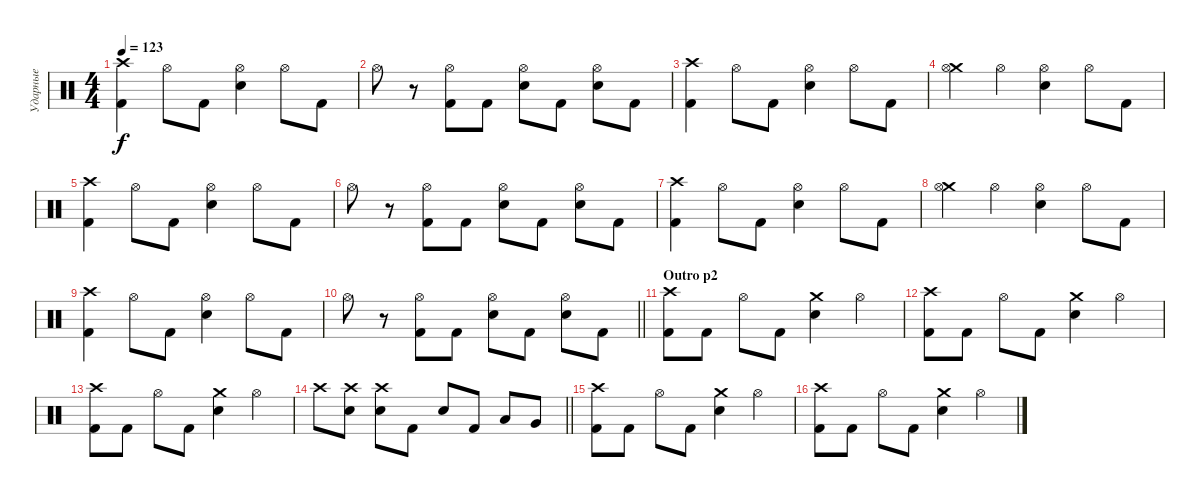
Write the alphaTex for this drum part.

\track ("Ударные" "Ударные") {instrument percussion}
\staff {score}
\articulation defaults
\ts (4 4)
\tempo 123
\clef neutral
\ks c
("Kick (hit) 2" "Crash high (hit)").4{dy f} "Hi-Hat (open)".8 "Kick (hit) 2".8 ("Electric Snare (hit)" "Hi-Hat (open)").4 "Hi-Hat (open)".8 "Kick (hit) 2".8 |
"Hi-Hat (open)".8 r.8 ("Kick (hit) 2" "Hi-Hat (open)").8 "Kick (hit) 2".8 ("Electric Snare (hit)" "Hi-Hat (open)").8 "Kick (hit) 2".8 ("Electric Snare (hit)" "Hi-Hat (open)").8 "Kick (hit) 2".8 |
("Kick (hit) 2" "Crash high (hit)").4 "Hi-Hat (open)".8 "Kick (hit) 2".8 ("Electric Snare (hit)" "Hi-Hat (open)").4 "Hi-Hat (open)".8 "Kick (hit) 2".8 |
("Crash medium (hit)" "Hi-Hat (open)").4 "Hi-Hat (open)".4 ("Electric Snare (hit)" "Hi-Hat (open)").4 "Hi-Hat (open)".8 "Kick (hit) 2".8 |
("Kick (hit) 2" "Crash high (hit)").4 "Hi-Hat (open)".8 "Kick (hit) 2".8 ("Electric Snare (hit)" "Hi-Hat (open)").4 "Hi-Hat (open)".8 "Kick (hit) 2".8 |
"Hi-Hat (open)".8 r.8 ("Kick (hit) 2" "Hi-Hat (open)").8 "Kick (hit) 2".8 ("Electric Snare (hit)" "Hi-Hat (open)").8 "Kick (hit) 2".8 ("Electric Snare (hit)" "Hi-Hat (open)").8 "Kick (hit) 2".8 |
("Kick (hit) 2" "Crash high (hit)").4 "Hi-Hat (open)".8 "Kick (hit) 2".8 ("Electric Snare (hit)" "Hi-Hat (open)").4 "Hi-Hat (open)".8 "Kick (hit) 2".8 |
("Crash medium (hit)" "Hi-Hat (open)").4 "Hi-Hat (open)".4 ("Electric Snare (hit)" "Hi-Hat (open)").4 "Hi-Hat (open)".8 "Kick (hit) 2".8 |
("Kick (hit) 2" "Crash high (hit)").4 "Hi-Hat (open)".8 "Kick (hit) 2".8 ("Electric Snare (hit)" "Hi-Hat (open)").4 "Hi-Hat (open)".8 "Kick (hit) 2".8 |
\barLineRight lightlight "Hi-Hat (open)".8
r.8 ("Kick (hit) 2" "Hi-Hat (open)").8 "Kick (hit) 2".8 ("Electric Snare (hit)" "Hi-Hat (open)").8 "Kick (hit) 2".8 ("Electric Snare (hit)" "Hi-Hat (open)").8 "Kick (hit) 2".8 |
\section ("" "Outro p2")
("Kick (hit) 2" "Crash high (hit)").8 "Kick (hit) 2".8 "Hi-Hat (open)".8 "Kick (hit) 2".8 ("Electric Snare (hit)" "Crash medium (hit)").4 "Hi-Hat (open)".4 |
("Kick (hit) 2" "Crash high (hit)").8 "Kick (hit) 2".8 "Hi-Hat (open)".8 "Kick (hit) 2".8 ("Electric Snare (hit)" "Crash medium (hit)").4 "Hi-Hat (open)".4 |
("Kick (hit) 2" "Crash high (hit)").8 "Kick (hit) 2".8 "Hi-Hat (open)".8 "Kick (hit) 2".8 ("Electric Snare (hit)" "Crash medium (hit)").4 "Hi-Hat (open)".4 |
\barLineRight lightlight "Crash high (hit)".8
("Electric Snare (hit)" "Crash high (hit)").8 ("Electric Snare (hit)" "Crash high (hit)").8 "Kick (hit) 2".8 "Electric Snare (hit)".8 "Kick (hit) 2".8 "Low Tom (hit)".8 "Very Low Tom (hit)".8 |
("Kick (hit) 2" "Crash high (hit)").8 "Kick (hit) 2".8 "Hi-Hat (open)".8 "Kick (hit) 2".8 ("Electric Snare (hit)" "Crash medium (hit)").4 "Hi-Hat (open)".4 |
("Kick (hit) 2" "Crash high (hit)").8 "Kick (hit) 2".8 "Hi-Hat (open)".8 "Kick (hit) 2".8 ("Electric Snare (hit)" "Crash medium (hit)").4 "Hi-Hat (open)".4
